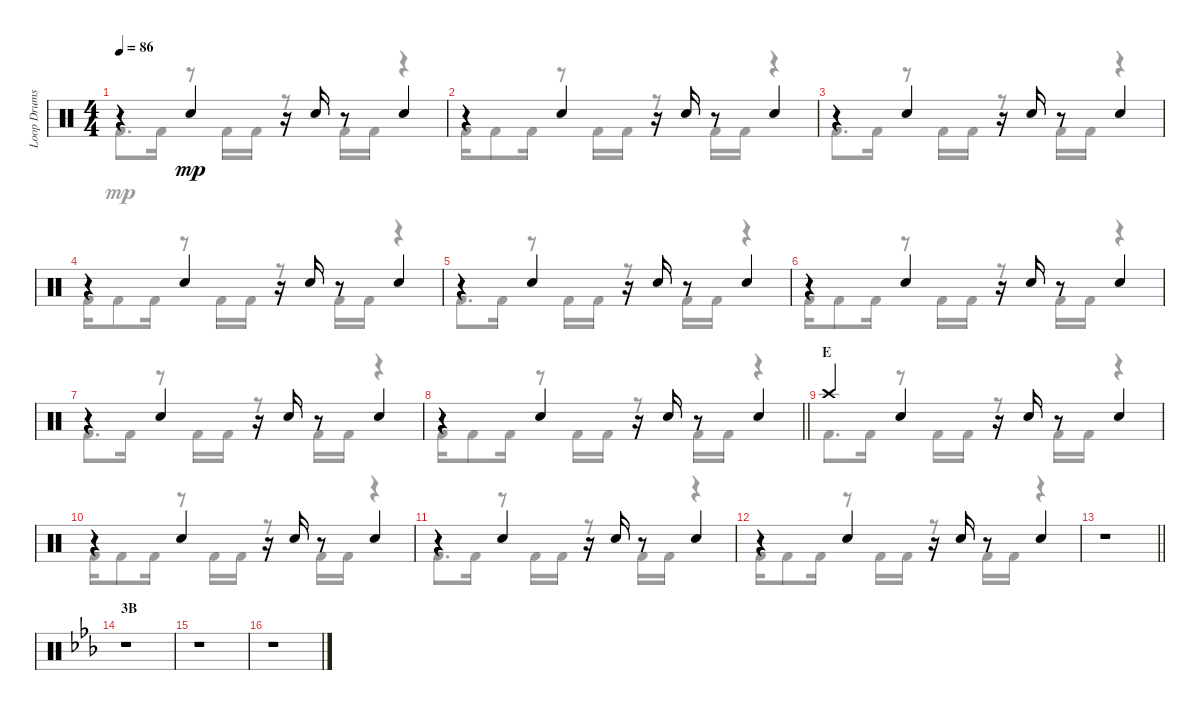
\track ("Loop Drums I" "Loop Drums") {instrument percussion}
\staff {score}
\articulation defaults
\voice
\ts (4 4)
\tempo 86
\clef neutral
\ks c
r.4{dy mp} "Electric Snare (hit)".4 r.16 "Electric Snare (hit)".16 r.8 "Electric Snare (hit)".4 |
r.4 "Electric Snare (hit)".4 r.16 "Electric Snare (hit)".16 r.8 "Electric Snare (hit)".4 |
r.4 "Electric Snare (hit)".4 r.16 "Electric Snare (hit)".16 r.8 "Electric Snare (hit)".4 |
r.4 "Electric Snare (hit)".4 r.16 "Electric Snare (hit)".16 r.8 "Electric Snare (hit)".4 |
r.4 "Electric Snare (hit)".4 r.16 "Electric Snare (hit)".16 r.8 "Electric Snare (hit)".4 |
r.4 "Electric Snare (hit)".4 r.16 "Electric Snare (hit)".16 r.8 "Electric Snare (hit)".4 |
r.4 "Electric Snare (hit)".4 r.16 "Electric Snare (hit)".16 r.8 "Electric Snare (hit)".4 |
\barLineRight lightlight
r.4 "Electric Snare (hit)".4 r.16 "Electric Snare (hit)".16 r.8 "Electric Snare (hit)".4 |
\section ("" "E")
"Crash high (hit)".4 "Electric Snare (hit)".4 r.16 "Electric Snare (hit)".16 r.8 "Electric Snare (hit)".4 |
r.4 "Electric Snare (hit)".4 r.16 "Electric Snare (hit)".16 r.8 "Electric Snare (hit)".4 |
r.4 "Electric Snare (hit)".4 r.16 "Electric Snare (hit)".16 r.8 "Electric Snare (hit)".4 |
r.4 "Electric Snare (hit)".4 r.16 "Electric Snare (hit)".16 r.8 "Electric Snare (hit)".4 |
\barLineRight lightlight
r.1 |
\section ("" "3B")
\ks eb
r.1 |
r.1 |
r.1
\voice
\clef neutral
\ottava regular
\simile none
\ks c "Kick (hit) 2".8{d dy mp} "Kick (hit) 2".16
r.8 "Kick (hit) 2".16 "Kick (hit) 2".16 r.8 "Kick (hit) 2".16 "Kick (hit) 2".16 r.4 |
"Kick (hit) 2".16 "Kick (hit) 2".8 "Kick (hit) 2".16 r.8 "Kick (hit) 2".16 "Kick (hit) 2".16 r.8 "Kick (hit) 2".16 "Kick (hit) 2".16 r.4 |
"Kick (hit) 2".8{d} "Kick (hit) 2".16 r.8 "Kick (hit) 2".16 "Kick (hit) 2".16 r.8 "Kick (hit) 2".16 "Kick (hit) 2".16 r.4 |
"Kick (hit) 2".16 "Kick (hit) 2".8 "Kick (hit) 2".16 r.8 "Kick (hit) 2".16 "Kick (hit) 2".16 r.8 "Kick (hit) 2".16 "Kick (hit) 2".16 r.4 |
"Kick (hit) 2".8{d} "Kick (hit) 2".16 r.8 "Kick (hit) 2".16 "Kick (hit) 2".16 r.8 "Kick (hit) 2".16 "Kick (hit) 2".16 r.4 |
"Kick (hit) 2".16 "Kick (hit) 2".8 "Kick (hit) 2".16 r.8 "Kick (hit) 2".16 "Kick (hit) 2".16 r.8 "Kick (hit) 2".16 "Kick (hit) 2".16 r.4 |
"Kick (hit) 2".8{d} "Kick (hit) 2".16 r.8 "Kick (hit) 2".16 "Kick (hit) 2".16 r.8 "Kick (hit) 2".16 "Kick (hit) 2".16 r.4 |
\barLineRight lightlight "Kick (hit) 2".16 "Kick (hit) 2".8 "Kick (hit) 2".16
r.8 "Kick (hit) 2".16 "Kick (hit) 2".16 r.8 "Kick (hit) 2".16 "Kick (hit) 2".16 r.4 |
"Kick (hit) 2".8{d} "Kick (hit) 2".16 r.8 "Kick (hit) 2".16 "Kick (hit) 2".16 r.8 "Kick (hit) 2".16 "Kick (hit) 2".16 r.4 |
"Kick (hit) 2".16 "Kick (hit) 2".8 "Kick (hit) 2".16 r.8 "Kick (hit) 2".16 "Kick (hit) 2".16 r.8 "Kick (hit) 2".16 "Kick (hit) 2".16 r.4 |
"Kick (hit) 2".8{d} "Kick (hit) 2".16 r.8 "Kick (hit) 2".16 "Kick (hit) 2".16 r.8 "Kick (hit) 2".16 "Kick (hit) 2".16 r.4 |
"Kick (hit) 2".16 "Kick (hit) 2".8 "Kick (hit) 2".16 r.8 "Kick (hit) 2".16 "Kick (hit) 2".16 r.8 "Kick (hit) 2".16 "Kick (hit) 2".16 r.4 |
\barLineRight lightlight
r.1 |
\ks eb
r.1 |
r.1 |
r.1
